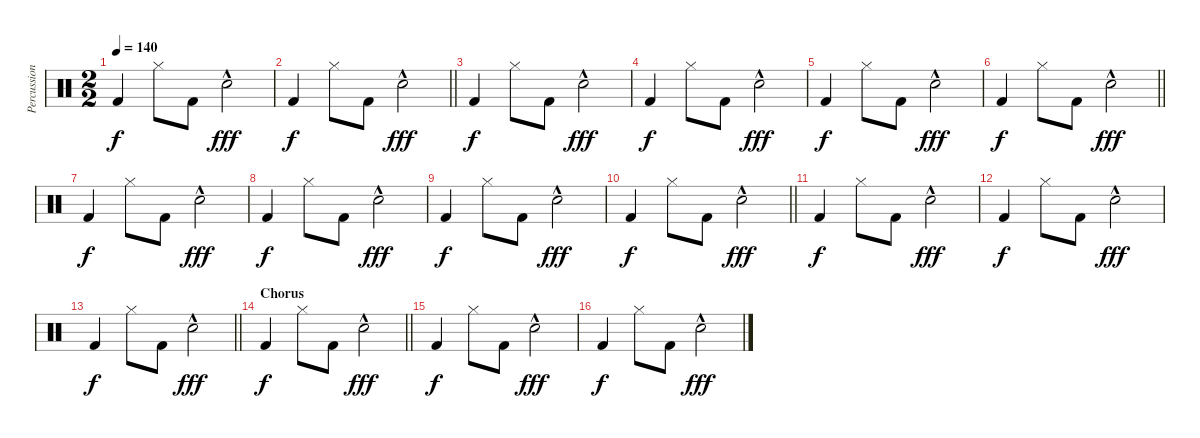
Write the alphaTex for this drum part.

\track ("Percussion" "Percussion") {instrument percussion}
\staff {score}
\articulation defaults
\ts (2 2)
\tempo 140
\clef neutral
\ks c "Kick (hit) 2".4{dy f} "Hi-Hat (closed)".8 "Kick (hit) 2".8 "Hand Clap (hit)"{hac}.2{dy fff}
|
\barLineRight lightlight "Kick (hit) 2".4{dy f} "Hi-Hat (closed)".8 "Kick (hit) 2".8 "Hand Clap (hit)"{hac}.2{dy fff}
|
"Kick (hit) 2".4{dy f} "Hi-Hat (closed)".8 "Kick (hit) 2".8 "Hand Clap (hit)"{hac}.2{dy fff} |
"Kick (hit) 2".4{dy f} "Hi-Hat (closed)".8 "Kick (hit) 2".8 "Hand Clap (hit)"{hac}.2{dy fff} |
"Kick (hit) 2".4{dy f} "Hi-Hat (closed)".8 "Kick (hit) 2".8 "Hand Clap (hit)"{hac}.2{dy fff} |
\barLineRight lightlight "Kick (hit) 2".4{dy f} "Hi-Hat (closed)".8 "Kick (hit) 2".8 "Hand Clap (hit)"{hac}.2{dy fff}
|
"Kick (hit) 2".4{dy f} "Hi-Hat (closed)".8 "Kick (hit) 2".8 "Hand Clap (hit)"{hac}.2{dy fff} |
"Kick (hit) 2".4{dy f} "Hi-Hat (closed)".8 "Kick (hit) 2".8 "Hand Clap (hit)"{hac}.2{dy fff} |
"Kick (hit) 2".4{dy f} "Hi-Hat (closed)".8 "Kick (hit) 2".8 "Hand Clap (hit)"{hac}.2{dy fff} |
\barLineRight lightlight "Kick (hit) 2".4{dy f} "Hi-Hat (closed)".8 "Kick (hit) 2".8 "Hand Clap (hit)"{hac}.2{dy fff}
|
"Kick (hit) 2".4{dy f} "Hi-Hat (closed)".8 "Kick (hit) 2".8 "Hand Clap (hit)"{hac}.2{dy fff} |
"Kick (hit) 2".4{dy f} "Hi-Hat (closed)".8 "Kick (hit) 2".8 "Hand Clap (hit)"{hac}.2{dy fff} |
\barLineRight lightlight "Kick (hit) 2".4{dy f} "Hi-Hat (closed)".8 "Kick (hit) 2".8 "Hand Clap (hit)"{hac}.2{dy fff}
|
\section ("" "Chorus")
\barLineRight lightlight "Kick (hit) 2".4{dy f} "Hi-Hat (closed)".8 "Kick (hit) 2".8 "Hand Clap (hit)"{hac}.2{dy fff}
|
"Kick (hit) 2".4{dy f} "Hi-Hat (closed)".8 "Kick (hit) 2".8 "Hand Clap (hit)"{hac}.2{dy fff} |
"Kick (hit) 2".4{dy f} "Hi-Hat (closed)".8 "Kick (hit) 2".8 "Hand Clap (hit)"{hac}.2{dy fff}
